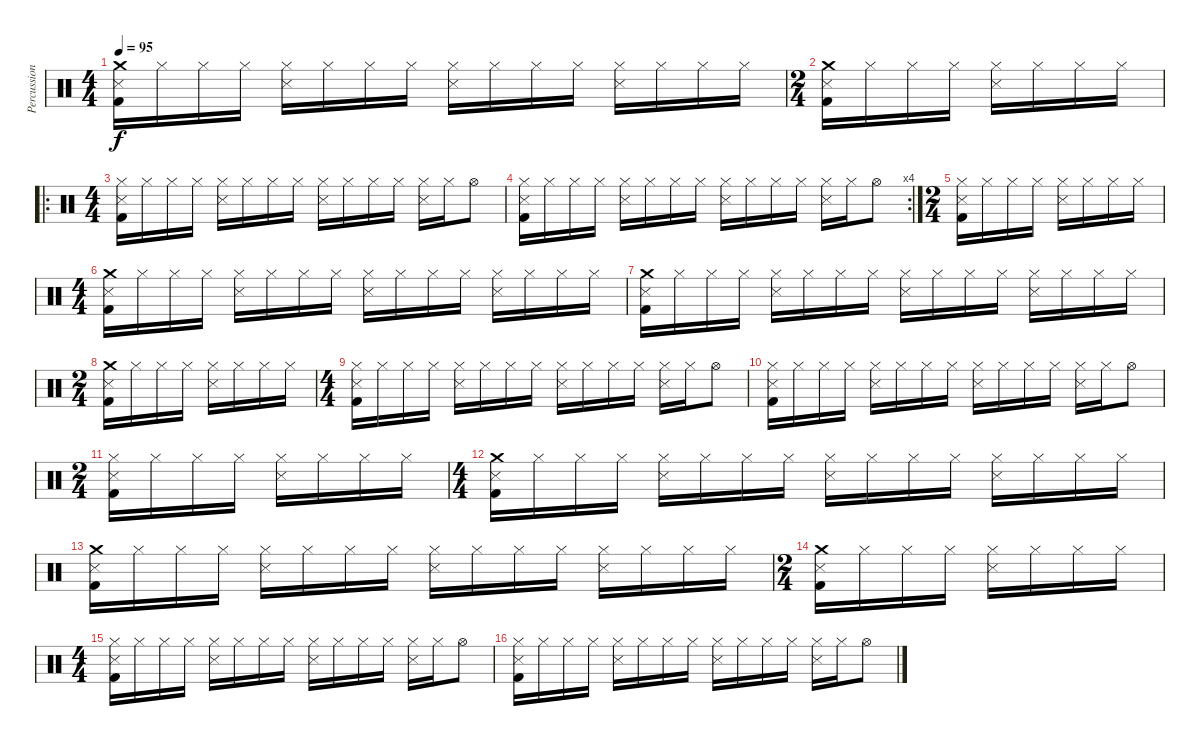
\track ("Percussion" "Percussion") {instrument percussion}
\staff {score}
\articulation defaults
\ts (4 4)
\tempo 95
\clef neutral
\ks c
("Crash medium (hit)" "Snare (side stick) 3" "Kick (hit) 2").16{dy f} "Hi-Hat (closed)".16 "Hi-Hat (closed)".16 "Hi-Hat (closed)".16 ("Hi-Hat (closed)" "Snare (side stick) 3").16 "Hi-Hat (closed)".16 "Hi-Hat (closed)".16 "Hi-Hat (closed)".16 ("Hi-Hat (closed)" "Snare (side stick) 3").16 "Hi-Hat (closed)".16 "Hi-Hat (closed)".16 "Hi-Hat (closed)".16 ("Hi-Hat (closed)" "Snare (side stick) 3").16 "Hi-Hat (closed)".16 "Hi-Hat (closed)".16 "Hi-Hat (closed)".16 |
\ts (2 4)
("Crash medium (hit)" "Snare (side stick) 3" "Kick (hit) 2").16 "Hi-Hat (closed)".16 "Hi-Hat (closed)".16 "Hi-Hat (closed)".16 ("Hi-Hat (closed)" "Snare (side stick) 3").16 "Hi-Hat (closed)".16 "Hi-Hat (closed)".16 "Hi-Hat (closed)".16 |
\ro
\ts (4 4)
("Hi-Hat (closed)" "Snare (side stick) 3" "Kick (hit) 2").16 "Hi-Hat (closed)".16 "Hi-Hat (closed)".16 "Hi-Hat (closed)".16 ("Hi-Hat (closed)" "Snare (side stick) 3").16 "Hi-Hat (closed)".16 "Hi-Hat (closed)".16 "Hi-Hat (closed)".16 ("Hi-Hat (closed)" "Snare (side stick) 3").16 "Hi-Hat (closed)".16 "Hi-Hat (closed)".16 "Hi-Hat (closed)".16 ("Hi-Hat (closed)" "Snare (side stick) 3").16 "Hi-Hat (closed)".16 "Hi-Hat (open)".8 |
\rc 4
("Hi-Hat (closed)" "Snare (side stick) 3" "Kick (hit) 2").16 "Hi-Hat (closed)".16 "Hi-Hat (closed)".16 "Hi-Hat (closed)".16 ("Hi-Hat (closed)" "Snare (side stick) 3").16 "Hi-Hat (closed)".16 "Hi-Hat (closed)".16 "Hi-Hat (closed)".16 ("Hi-Hat (closed)" "Snare (side stick) 3").16 "Hi-Hat (closed)".16 "Hi-Hat (closed)".16 "Hi-Hat (closed)".16 ("Hi-Hat (closed)" "Snare (side stick) 3").16 "Hi-Hat (closed)".16 "Hi-Hat (open)".8 |
\ts (2 4)
("Hi-Hat (closed)" "Snare (side stick) 3" "Kick (hit) 2").16 "Hi-Hat (closed)".16 "Hi-Hat (closed)".16 "Hi-Hat (closed)".16 ("Hi-Hat (closed)" "Snare (side stick) 3").16 "Hi-Hat (closed)".16 "Hi-Hat (closed)".16 "Hi-Hat (closed)".16 |
\ts (4 4)
("Crash medium (hit)" "Snare (side stick) 3" "Kick (hit) 2").16 "Hi-Hat (closed)".16 "Hi-Hat (closed)".16 "Hi-Hat (closed)".16 ("Hi-Hat (closed)" "Snare (side stick) 3").16 "Hi-Hat (closed)".16 "Hi-Hat (closed)".16 "Hi-Hat (closed)".16 ("Hi-Hat (closed)" "Snare (side stick) 3").16 "Hi-Hat (closed)".16 "Hi-Hat (closed)".16 "Hi-Hat (closed)".16 ("Hi-Hat (closed)" "Snare (side stick) 3").16 "Hi-Hat (closed)".16 "Hi-Hat (closed)".16 "Hi-Hat (closed)".16 |
("Crash medium (hit)" "Snare (side stick) 3" "Kick (hit) 2").16 "Hi-Hat (closed)".16 "Hi-Hat (closed)".16 "Hi-Hat (closed)".16 ("Hi-Hat (closed)" "Snare (side stick) 3").16 "Hi-Hat (closed)".16 "Hi-Hat (closed)".16 "Hi-Hat (closed)".16 ("Hi-Hat (closed)" "Snare (side stick) 3").16 "Hi-Hat (closed)".16 "Hi-Hat (closed)".16 "Hi-Hat (closed)".16 ("Hi-Hat (closed)" "Snare (side stick) 3").16 "Hi-Hat (closed)".16 "Hi-Hat (closed)".16 "Hi-Hat (closed)".16 |
\ts (2 4)
("Crash medium (hit)" "Snare (side stick) 3" "Kick (hit) 2").16 "Hi-Hat (closed)".16 "Hi-Hat (closed)".16 "Hi-Hat (closed)".16 ("Hi-Hat (closed)" "Snare (side stick) 3").16 "Hi-Hat (closed)".16 "Hi-Hat (closed)".16 "Hi-Hat (closed)".16 |
\ts (4 4)
("Hi-Hat (closed)" "Snare (side stick) 3" "Kick (hit) 2").16 "Hi-Hat (closed)".16 "Hi-Hat (closed)".16 "Hi-Hat (closed)".16 ("Hi-Hat (closed)" "Snare (side stick) 3").16 "Hi-Hat (closed)".16 "Hi-Hat (closed)".16 "Hi-Hat (closed)".16 ("Hi-Hat (closed)" "Snare (side stick) 3").16 "Hi-Hat (closed)".16 "Hi-Hat (closed)".16 "Hi-Hat (closed)".16 ("Hi-Hat (closed)" "Snare (side stick) 3").16 "Hi-Hat (closed)".16 "Hi-Hat (open)".8 |
("Hi-Hat (closed)" "Snare (side stick) 3" "Kick (hit) 2").16 "Hi-Hat (closed)".16 "Hi-Hat (closed)".16 "Hi-Hat (closed)".16 ("Hi-Hat (closed)" "Snare (side stick) 3").16 "Hi-Hat (closed)".16 "Hi-Hat (closed)".16 "Hi-Hat (closed)".16 ("Hi-Hat (closed)" "Snare (side stick) 3").16 "Hi-Hat (closed)".16 "Hi-Hat (closed)".16 "Hi-Hat (closed)".16 ("Hi-Hat (closed)" "Snare (side stick) 3").16 "Hi-Hat (closed)".16 "Hi-Hat (open)".8 |
\ts (2 4)
("Hi-Hat (closed)" "Snare (side stick) 3" "Kick (hit) 2").16 "Hi-Hat (closed)".16 "Hi-Hat (closed)".16 "Hi-Hat (closed)".16 ("Hi-Hat (closed)" "Snare (side stick) 3").16 "Hi-Hat (closed)".16 "Hi-Hat (closed)".16 "Hi-Hat (closed)".16 |
\ts (4 4)
("Crash medium (hit)" "Snare (side stick) 3" "Kick (hit) 2").16 "Hi-Hat (closed)".16 "Hi-Hat (closed)".16 "Hi-Hat (closed)".16 ("Hi-Hat (closed)" "Snare (side stick) 3").16 "Hi-Hat (closed)".16 "Hi-Hat (closed)".16 "Hi-Hat (closed)".16 ("Hi-Hat (closed)" "Snare (side stick) 3").16 "Hi-Hat (closed)".16 "Hi-Hat (closed)".16 "Hi-Hat (closed)".16 ("Hi-Hat (closed)" "Snare (side stick) 3").16 "Hi-Hat (closed)".16 "Hi-Hat (closed)".16 "Hi-Hat (closed)".16 |
("Crash medium (hit)" "Snare (side stick) 3" "Kick (hit) 2").16 "Hi-Hat (closed)".16 "Hi-Hat (closed)".16 "Hi-Hat (closed)".16 ("Hi-Hat (closed)" "Snare (side stick) 3").16 "Hi-Hat (closed)".16 "Hi-Hat (closed)".16 "Hi-Hat (closed)".16 ("Hi-Hat (closed)" "Snare (side stick) 3").16 "Hi-Hat (closed)".16 "Hi-Hat (closed)".16 "Hi-Hat (closed)".16 ("Hi-Hat (closed)" "Snare (side stick) 3").16 "Hi-Hat (closed)".16 "Hi-Hat (closed)".16 "Hi-Hat (closed)".16 |
\ts (2 4)
("Crash medium (hit)" "Snare (side stick) 3" "Kick (hit) 2").16 "Hi-Hat (closed)".16 "Hi-Hat (closed)".16 "Hi-Hat (closed)".16 ("Hi-Hat (closed)" "Snare (side stick) 3").16 "Hi-Hat (closed)".16 "Hi-Hat (closed)".16 "Hi-Hat (closed)".16 |
\ts (4 4)
("Hi-Hat (closed)" "Snare (side stick) 3" "Kick (hit) 2").16 "Hi-Hat (closed)".16 "Hi-Hat (closed)".16 "Hi-Hat (closed)".16 ("Hi-Hat (closed)" "Snare (side stick) 3").16 "Hi-Hat (closed)".16 "Hi-Hat (closed)".16 "Hi-Hat (closed)".16 ("Hi-Hat (closed)" "Snare (side stick) 3").16 "Hi-Hat (closed)".16 "Hi-Hat (closed)".16 "Hi-Hat (closed)".16 ("Hi-Hat (closed)" "Snare (side stick) 3").16 "Hi-Hat (closed)".16 "Hi-Hat (open)".8 |
("Hi-Hat (closed)" "Snare (side stick) 3" "Kick (hit) 2").16 "Hi-Hat (closed)".16 "Hi-Hat (closed)".16 "Hi-Hat (closed)".16 ("Hi-Hat (closed)" "Snare (side stick) 3").16 "Hi-Hat (closed)".16 "Hi-Hat (closed)".16 "Hi-Hat (closed)".16 ("Hi-Hat (closed)" "Snare (side stick) 3").16 "Hi-Hat (closed)".16 "Hi-Hat (closed)".16 "Hi-Hat (closed)".16 ("Hi-Hat (closed)" "Snare (side stick) 3").16 "Hi-Hat (closed)".16 "Hi-Hat (open)".8
